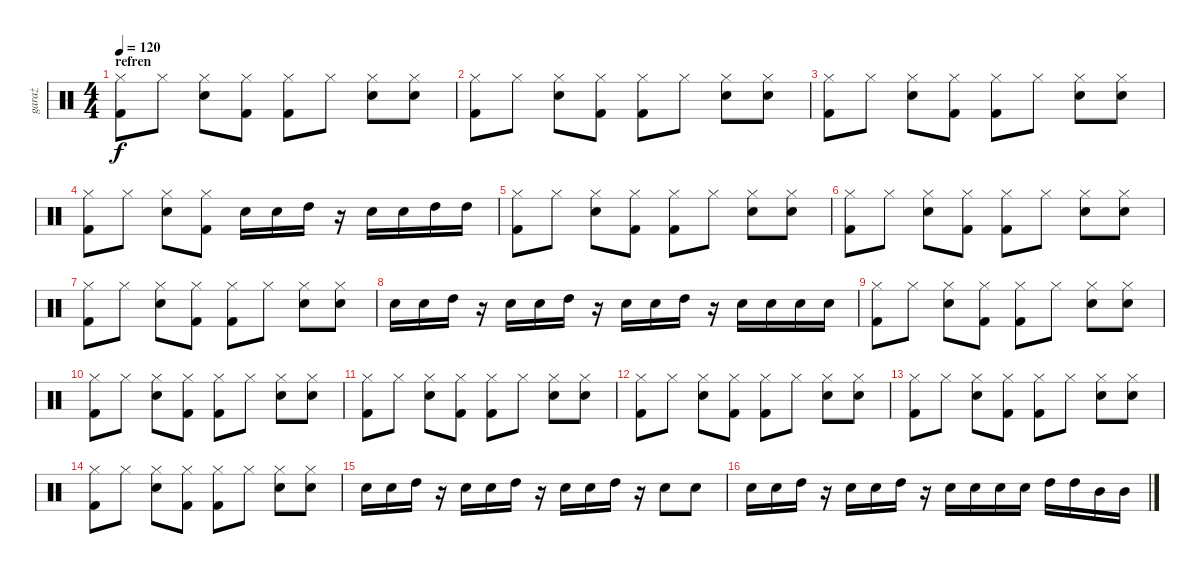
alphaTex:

\track ("garaż" "garaż") {instrument percussion}
\staff {score}
\articulation defaults
\ts (4 4)
\section ("" "refren")
\tempo 120
\clef neutral
\ks c
("Hi-Hat (closed)" "Kick (hit) 2").8{dy f} "Hi-Hat (closed)".8 ("Hi-Hat (closed)" "Snare (hit) 2").8 ("Hi-Hat (closed)" "Kick (hit) 2").8 ("Hi-Hat (closed)" "Kick (hit) 2").8 "Hi-Hat (closed)".8 ("Hi-Hat (closed)" "Snare (hit) 2").8 ("Hi-Hat (closed)" "Snare (hit) 2").8 |
("Hi-Hat (closed)" "Kick (hit) 2").8 "Hi-Hat (closed)".8 ("Hi-Hat (closed)" "Snare (hit) 2").8 ("Hi-Hat (closed)" "Kick (hit) 2").8 ("Hi-Hat (closed)" "Kick (hit) 2").8 "Hi-Hat (closed)".8 ("Hi-Hat (closed)" "Snare (hit) 2").8 ("Hi-Hat (closed)" "Snare (hit) 2").8 |
("Hi-Hat (closed)" "Kick (hit) 2").8 "Hi-Hat (closed)".8 ("Hi-Hat (closed)" "Snare (hit) 2").8 ("Hi-Hat (closed)" "Kick (hit) 2").8 ("Hi-Hat (closed)" "Kick (hit) 2").8 "Hi-Hat (closed)".8 ("Hi-Hat (closed)" "Snare (hit) 2").8 ("Hi-Hat (closed)" "Snare (hit) 2").8 |
("Hi-Hat (closed)" "Kick (hit) 2").8 "Hi-Hat (closed)".8 ("Hi-Hat (closed)" "Snare (hit) 2").8 ("Hi-Hat (closed)" "Kick (hit) 2").8 "Snare (hit) 2".16 "Snare (hit) 2".16 "High Tom (hit)".16 r.16 "Snare (hit) 2".16 "Snare (hit) 2".16 "High Tom (hit)".16 "High Tom (hit)".16 |
("Hi-Hat (closed)" "Kick (hit) 2").8 "Hi-Hat (closed)".8 ("Hi-Hat (closed)" "Snare (hit) 2").8 ("Hi-Hat (closed)" "Kick (hit) 2").8 ("Hi-Hat (closed)" "Kick (hit) 2").8 "Hi-Hat (closed)".8 ("Hi-Hat (closed)" "Snare (hit) 2").8 ("Hi-Hat (closed)" "Snare (hit) 2").8 |
("Hi-Hat (closed)" "Kick (hit) 2").8 "Hi-Hat (closed)".8 ("Hi-Hat (closed)" "Snare (hit) 2").8 ("Hi-Hat (closed)" "Kick (hit) 2").8 ("Hi-Hat (closed)" "Kick (hit) 2").8 "Hi-Hat (closed)".8 ("Hi-Hat (closed)" "Snare (hit) 2").8 ("Hi-Hat (closed)" "Snare (hit) 2").8 |
("Hi-Hat (closed)" "Kick (hit) 2").8 "Hi-Hat (closed)".8 ("Hi-Hat (closed)" "Snare (hit) 2").8 ("Hi-Hat (closed)" "Kick (hit) 2").8 ("Hi-Hat (closed)" "Kick (hit) 2").8 "Hi-Hat (closed)".8 ("Hi-Hat (closed)" "Snare (hit) 2").8 ("Hi-Hat (closed)" "Snare (hit) 2").8 |
"Snare (hit) 2".16 "Snare (hit) 2".16 "High Tom (hit)".16 r.16 "Snare (hit) 2".16 "Snare (hit) 2".16 "High Tom (hit)".16 r.16 "Snare (hit) 2".16 "Snare (hit) 2".16 "High Tom (hit)".16 r.16 "Snare (hit) 2".16 "Snare (hit) 2".16 "Snare (hit) 2".16 "Snare (hit) 2".16 |
("Hi-Hat (closed)" "Kick (hit) 2").8 "Hi-Hat (closed)".8 ("Hi-Hat (closed)" "Snare (hit) 2").8 ("Hi-Hat (closed)" "Kick (hit) 2").8 ("Hi-Hat (closed)" "Kick (hit) 2").8 "Hi-Hat (closed)".8 ("Hi-Hat (closed)" "Snare (hit) 2").8 ("Hi-Hat (closed)" "Snare (hit) 2").8 |
("Hi-Hat (closed)" "Kick (hit) 2").8 "Hi-Hat (closed)".8 ("Hi-Hat (closed)" "Snare (hit) 2").8 ("Hi-Hat (closed)" "Kick (hit) 2").8 ("Hi-Hat (closed)" "Kick (hit) 2").8 "Hi-Hat (closed)".8 ("Hi-Hat (closed)" "Snare (hit) 2").8 ("Hi-Hat (closed)" "Snare (hit) 2").8 |
("Hi-Hat (closed)" "Kick (hit) 2").8 "Hi-Hat (closed)".8 ("Hi-Hat (closed)" "Snare (hit) 2").8 ("Hi-Hat (closed)" "Kick (hit) 2").8 ("Hi-Hat (closed)" "Kick (hit) 2").8 "Hi-Hat (closed)".8 ("Hi-Hat (closed)" "Snare (hit) 2").8 ("Hi-Hat (closed)" "Snare (hit) 2").8 |
("Hi-Hat (closed)" "Kick (hit) 2").8 "Hi-Hat (closed)".8 ("Hi-Hat (closed)" "Snare (hit) 2").8 ("Hi-Hat (closed)" "Kick (hit) 2").8 ("Hi-Hat (closed)" "Kick (hit) 2").8 "Hi-Hat (closed)".8 ("Hi-Hat (closed)" "Snare (hit) 2").8 ("Hi-Hat (closed)" "Snare (hit) 2").8 |
("Hi-Hat (closed)" "Kick (hit) 2").8 "Hi-Hat (closed)".8 ("Hi-Hat (closed)" "Snare (hit) 2").8 ("Hi-Hat (closed)" "Kick (hit) 2").8 ("Hi-Hat (closed)" "Kick (hit) 2").8 "Hi-Hat (closed)".8 ("Hi-Hat (closed)" "Snare (hit) 2").8 ("Hi-Hat (closed)" "Snare (hit) 2").8 |
("Hi-Hat (closed)" "Kick (hit) 2").8 "Hi-Hat (closed)".8 ("Hi-Hat (closed)" "Snare (hit) 2").8 ("Hi-Hat (closed)" "Kick (hit) 2").8 ("Hi-Hat (closed)" "Kick (hit) 2").8 "Hi-Hat (closed)".8 ("Hi-Hat (closed)" "Snare (hit) 2").8 ("Hi-Hat (closed)" "Snare (hit) 2").8 |
"Snare (hit) 2".16 "Snare (hit) 2".16 "High Tom (hit)".16 r.16 "Snare (hit) 2".16 "Snare (hit) 2".16 "High Tom (hit)".16 r.16 "Snare (hit) 2".16 "Snare (hit) 2".16 "High Tom (hit)".16 r.16 "Snare (hit) 2".8 "Snare (hit) 2".8 |
"Snare (hit) 2".16 "Snare (hit) 2".16 "High Tom (hit)".16 r.16 "Snare (hit) 2".16 "Snare (hit) 2".16 "High Tom (hit)".16 r.16 "Snare (hit) 2".16 "Snare (hit) 2".16 "Snare (hit) 2".16 "Snare (hit) 2".16 "High Tom (hit)".16 "High Tom (hit)".16 "Mid Tom (hit)".16 "Mid Tom (hit)".16
